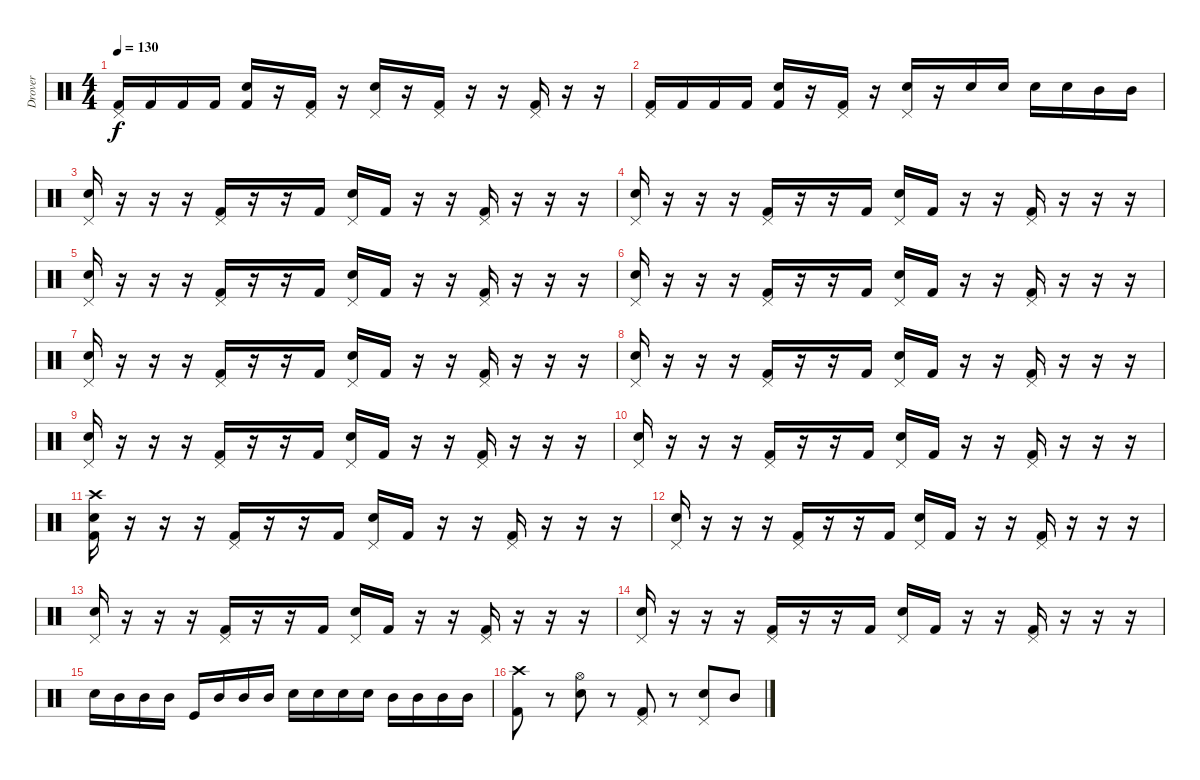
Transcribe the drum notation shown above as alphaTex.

\track ("Drover" "Drover") {instrument percussion}
\staff {score}
\articulation defaults
\ts (4 4)
\tempo 130
\clef neutral
\ks c
("Pedal Hi-Hat (hit)" "Kick (hit) 2").16{dy f} "Kick (hit) 2".16 "Kick (hit) 2".16 "Kick (hit) 2".16 ("Electric Snare (hit)" "Kick (hit) 2").16 r.16 ("Pedal Hi-Hat (hit)" "Kick (hit) 2").16 r.16 ("Pedal Hi-Hat (hit)" "Electric Snare (hit)").16 r.16 ("Pedal Hi-Hat (hit)" "Kick (hit) 2").16 r.16 r.16 ("Pedal Hi-Hat (hit)" "Kick (hit) 2").16 r.16 r.16 |
("Pedal Hi-Hat (hit)" "Kick (hit) 2").16 "Kick (hit) 2".16 "Kick (hit) 2".16 "Kick (hit) 2".16 ("Electric Snare (hit)" "Kick (hit) 2").16 r.16 ("Pedal Hi-Hat (hit)" "Kick (hit) 2").16 r.16 ("Pedal Hi-Hat (hit)" "Electric Snare (hit)").16 r.16 "Electric Snare (hit)".16 "Snare (hit) 2".16 "Snare (hit) 2".16 "Snare (hit) 2".16 "Mid Tom (hit)".16 "Mid Tom (hit)".16 |
("Electric Snare (hit)" "Pedal Hi-Hat (hit)").16 r.16 r.16 r.16 ("Kick (hit) 2" "Pedal Hi-Hat (hit)").16 r.16 r.16 "Kick (hit) 2".16 ("Electric Snare (hit)" "Pedal Hi-Hat (hit)").16 "Kick (hit) 2".16 r.16 r.16 ("Kick (hit) 2" "Pedal Hi-Hat (hit)").16 r.16 r.16 r.16 |
("Electric Snare (hit)" "Pedal Hi-Hat (hit)").16 r.16 r.16 r.16 ("Kick (hit) 2" "Pedal Hi-Hat (hit)").16 r.16 r.16 "Kick (hit) 2".16 ("Electric Snare (hit)" "Pedal Hi-Hat (hit)").16 "Kick (hit) 2".16 r.16 r.16 ("Kick (hit) 2" "Pedal Hi-Hat (hit)").16 r.16 r.16 r.16 |
("Electric Snare (hit)" "Pedal Hi-Hat (hit)").16 r.16 r.16 r.16 ("Kick (hit) 2" "Pedal Hi-Hat (hit)").16 r.16 r.16 "Kick (hit) 2".16 ("Electric Snare (hit)" "Pedal Hi-Hat (hit)").16 "Kick (hit) 2".16 r.16 r.16 ("Kick (hit) 2" "Pedal Hi-Hat (hit)").16 r.16 r.16 r.16 |
("Electric Snare (hit)" "Pedal Hi-Hat (hit)").16 r.16 r.16 r.16 ("Kick (hit) 2" "Pedal Hi-Hat (hit)").16 r.16 r.16 "Kick (hit) 2".16 ("Electric Snare (hit)" "Pedal Hi-Hat (hit)").16 "Kick (hit) 2".16 r.16 r.16 ("Kick (hit) 2" "Pedal Hi-Hat (hit)").16 r.16 r.16 r.16 |
("Electric Snare (hit)" "Pedal Hi-Hat (hit)").16 r.16 r.16 r.16 ("Kick (hit) 2" "Pedal Hi-Hat (hit)").16 r.16 r.16 "Kick (hit) 2".16 ("Electric Snare (hit)" "Pedal Hi-Hat (hit)").16 "Kick (hit) 2".16 r.16 r.16 ("Kick (hit) 2" "Pedal Hi-Hat (hit)").16 r.16 r.16 r.16 |
("Electric Snare (hit)" "Pedal Hi-Hat (hit)").16 r.16 r.16 r.16 ("Kick (hit) 2" "Pedal Hi-Hat (hit)").16 r.16 r.16 "Kick (hit) 2".16 ("Electric Snare (hit)" "Pedal Hi-Hat (hit)").16 "Kick (hit) 2".16 r.16 r.16 ("Kick (hit) 2" "Pedal Hi-Hat (hit)").16 r.16 r.16 r.16 |
("Electric Snare (hit)" "Pedal Hi-Hat (hit)").16 r.16 r.16 r.16 ("Kick (hit) 2" "Pedal Hi-Hat (hit)").16 r.16 r.16 "Kick (hit) 2".16 ("Electric Snare (hit)" "Pedal Hi-Hat (hit)").16 "Kick (hit) 2".16 r.16 r.16 ("Kick (hit) 2" "Pedal Hi-Hat (hit)").16 r.16 r.16 r.16 |
("Electric Snare (hit)" "Pedal Hi-Hat (hit)").16 r.16 r.16 r.16 ("Kick (hit) 2" "Pedal Hi-Hat (hit)").16 r.16 r.16 "Kick (hit) 2".16 ("Electric Snare (hit)" "Pedal Hi-Hat (hit)").16 "Kick (hit) 2".16 r.16 r.16 ("Kick (hit) 2" "Pedal Hi-Hat (hit)").16 r.16 r.16 r.16 |
("Electric Snare (hit)" "Crash high (hit)" "Kick (hit) 2").16 r.16 r.16 r.16 ("Kick (hit) 2" "Pedal Hi-Hat (hit)").16 r.16 r.16 "Kick (hit) 2".16 ("Electric Snare (hit)" "Pedal Hi-Hat (hit)").16 "Kick (hit) 2".16 r.16 r.16 ("Kick (hit) 2" "Pedal Hi-Hat (hit)").16 r.16 r.16 r.16 |
("Electric Snare (hit)" "Pedal Hi-Hat (hit)").16 r.16 r.16 r.16 ("Kick (hit) 2" "Pedal Hi-Hat (hit)").16 r.16 r.16 "Kick (hit) 2".16 ("Electric Snare (hit)" "Pedal Hi-Hat (hit)").16 "Kick (hit) 2".16 r.16 r.16 ("Kick (hit) 2" "Pedal Hi-Hat (hit)").16 r.16 r.16 r.16 |
("Electric Snare (hit)" "Pedal Hi-Hat (hit)").16 r.16 r.16 r.16 ("Kick (hit) 2" "Pedal Hi-Hat (hit)").16 r.16 r.16 "Kick (hit) 2".16 ("Electric Snare (hit)" "Pedal Hi-Hat (hit)").16 "Kick (hit) 2".16 r.16 r.16 ("Kick (hit) 2" "Pedal Hi-Hat (hit)").16 r.16 r.16 r.16 |
("Electric Snare (hit)" "Pedal Hi-Hat (hit)").16 r.16 r.16 r.16 ("Kick (hit) 2" "Pedal Hi-Hat (hit)").16 r.16 r.16 "Kick (hit) 2".16 ("Electric Snare (hit)" "Pedal Hi-Hat (hit)").16 "Kick (hit) 2".16 r.16 r.16 ("Kick (hit) 2" "Pedal Hi-Hat (hit)").16 r.16 r.16 r.16 |
"Snare (hit) 2".16 "Mid Tom (hit)".16 "Mid Tom (hit)".16 "Mid Tom (hit)".16 "Kick (hit)".16 "Mid Tom (hit)".16 "Mid Tom (hit)".16 "Mid Tom (hit)".16 "Electric Snare (hit)".16 "Snare (hit) 2".16 "Snare (hit) 2".16 "Snare (hit) 2".16 "Mid Tom (hit)".16 "Mid Tom (hit)".16 "Mid Tom (hit)".16 "Mid Tom (hit)".16 |
("Crash high (hit)" "Kick (hit) 2").8 r.8 ("Electric Snare (hit)" "Hi-Hat (open)").8 r.8 ("Kick (hit) 2" "Pedal Hi-Hat (hit)").8 r.8 ("Electric Snare (hit)" "Pedal Hi-Hat (hit)").8 "Mid Tom (hit)".8
